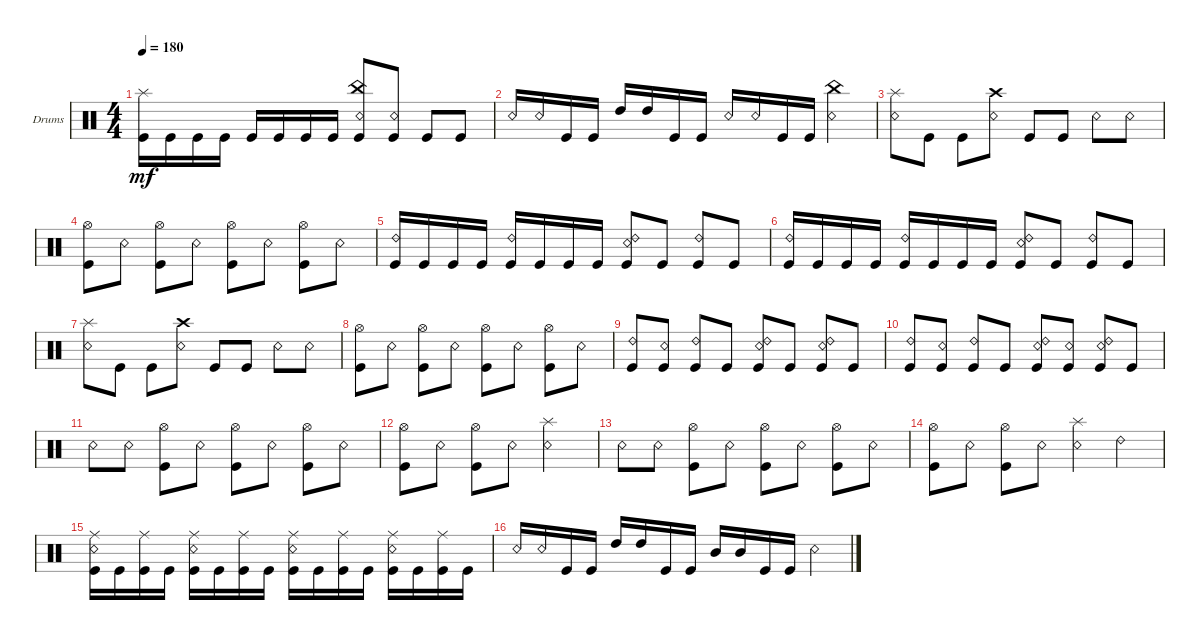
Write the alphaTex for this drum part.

\defaultSystemsLayout 4
\bracketExtendMode groupsimilarinstruments
\firstSystemTrackNameOrientation horizontal
\otherSystemsTrackNameOrientation horizontal
\track ("Drumkit" "Drums") {instrument percussion}
\staff {score}
\articulation defaults
\ts (4 4)
\tempo 180
\clef neutral
\scale
0.333333
\ks c
("Kick (hit)" "Splash (hit)").16{dy mf} "Kick (hit)".16 "Kick (hit)".16 "Kick (hit)".16 "Kick (hit)".16 "Kick (hit)".16 "Kick (hit)".16 "Kick (hit)".16 ("Kick (hit)" "China (hit)" "Snare (rim shot)").8 ("Kick (hit)" "Snare (rim shot)").8 "Kick (hit)".8 "Kick (hit)".8 |
\scale
0.333333 "Snare (rim shot)".16 "Snare (rim shot)".16 "Kick (hit)".16 "Kick (hit)".16 "High Tom (hit)".16 "High Tom (hit)".16 "Kick (hit)".16 "Kick (hit)".16 "Snare (rim shot)".16 "Snare (rim shot)".16 "Kick (hit)".16 "Kick (hit)".16 ("Snare (rim shot)" "China (hit)").4 |
\scale
0.333333 ("Snare (rim shot)" "Splash (hit)").8 "Kick (hit)".8 "Kick (hit)".8 ("Snare (rim shot)" "Crash high (hit)").8 "Kick (hit)".8 "Kick (hit)".8 "Snare (rim shot)".8 "Snare (rim shot)".8 |
\scale
0.333333 ("Kick (hit)" "Hi-Hat (open)").8 "Snare (rim shot)".8 ("Kick (hit)" "Hi-Hat (open)").8 "Snare (rim shot)".8 ("Kick (hit)" "Hi-Hat (open)").8 "Snare (rim shot)".8 ("Kick (hit)" "Hi-Hat (open)").8 "Snare (rim shot)".8 |
\scale
0.333333 ("Kick (hit)" "Ride (bell) 2").16 "Kick (hit)".16 "Kick (hit)".16 "Kick (hit)".16 ("Kick (hit)" "Ride (bell) 2").16 "Kick (hit)".16 "Kick (hit)".16 "Kick (hit)".16 ("Kick (hit)" "Ride (bell) 2" "Snare (rim shot)").8 "Kick (hit)".8 ("Kick (hit)" "Ride (bell) 2").8 "Kick (hit)".8 |
\scale
0.333333 ("Kick (hit)" "Ride (bell) 2").16 "Kick (hit)".16 "Kick (hit)".16 "Kick (hit)".16 ("Kick (hit)" "Ride (bell) 2").16 "Kick (hit)".16 "Kick (hit)".16 "Kick (hit)".16 ("Kick (hit)" "Ride (bell) 2" "Snare (rim shot)").8 "Kick (hit)".8 ("Kick (hit)" "Ride (bell) 2").8 "Kick (hit)".8 |
\scale
0.333333 ("Snare (rim shot)" "Splash (hit)").8 "Kick (hit)".8 "Kick (hit)".8 ("Snare (rim shot)" "Crash high (hit)").8 "Kick (hit)".8 "Kick (hit)".8 "Snare (rim shot)".8 "Snare (rim shot)".8 |
\scale
0.333333 ("Kick (hit)" "Hi-Hat (open)").8 "Snare (rim shot)".8 ("Kick (hit)" "Hi-Hat (open)").8 "Snare (rim shot)".8 ("Kick (hit)" "Hi-Hat (open)").8 "Snare (rim shot)".8 ("Kick (hit)" "Hi-Hat (open)").8 "Snare (rim shot)".8 |
\scale
0.333333 ("Kick (hit)" "Ride (bell) 2").8 ("Kick (hit)" "Snare (rim shot)").8 ("Kick (hit)" "Ride (bell) 2").8 "Kick (hit)".8 ("Kick (hit)" "Snare (rim shot)" "Ride (bell) 2").8 "Kick (hit)".8 ("Kick (hit)" "Ride (bell) 2" "Snare (rim shot)").8 "Kick (hit)".8 |
\scale
0.333333 ("Kick (hit)" "Ride (bell) 2").8 ("Kick (hit)" "Snare (rim shot)").8 ("Kick (hit)" "Ride (bell) 2").8 "Kick (hit)".8 ("Kick (hit)" "Snare (rim shot)" "Ride (bell) 2").8 ("Kick (hit)" "Snare (rim shot)").8 ("Kick (hit)" "Ride (bell) 2" "Snare (rim shot)").8 "Kick (hit)".8 |
\scale
0.333333 "Snare (rim shot)".8 "Snare (rim shot)".8 ("Kick (hit)" "Hi-Hat (open)").8 "Snare (rim shot)".8 ("Kick (hit)" "Hi-Hat (open)").8 "Snare (rim shot)".8 ("Kick (hit)" "Hi-Hat (open)").8 "Snare (rim shot)".8 |
\scale
0.333333 ("Kick (hit)" "Hi-Hat (open)").8 "Snare (rim shot)".8 ("Kick (hit)" "Hi-Hat (open)").8 "Snare (rim shot)".8 ("Snare (rim shot)" "Splash (hit)").2 |
\scale
0.333333 "Snare (rim shot)".8 "Snare (rim shot)".8 ("Kick (hit)" "Hi-Hat (open)").8 "Snare (rim shot)".8 ("Kick (hit)" "Hi-Hat (open)").8 "Snare (rim shot)".8 ("Kick (hit)" "Hi-Hat (open)").8 "Snare (rim shot)".8 |
\scale
0.333333 ("Kick (hit)" "Hi-Hat (open)").8 "Snare (rim shot)".8 ("Kick (hit)" "Hi-Hat (open)").8 "Snare (rim shot)".8 ("Snare (rim shot)" "Splash (hit)").4 "Ride (bell) 2".4 |
\scale
0.333333 ("Kick (hit)" "Ride (middle)" "Snare (rim shot)").16 "Kick (hit)".16 ("Kick (hit)" "Ride (middle)").16 "Kick (hit)".16 ("Kick (hit)" "Ride (middle)" "Snare (rim shot)").16 "Kick (hit)".16 ("Kick (hit)" "Ride (middle)").16 "Kick (hit)".16 ("Kick (hit)" "Ride (middle)" "Snare (rim shot)").16 "Kick (hit)".16 ("Kick (hit)" "Ride (middle)").16 "Kick (hit)".16 ("Kick (hit)" "Ride (middle)" "Snare (rim shot)").16 "Kick (hit)".16 ("Kick (hit)" "Ride (middle)").16 "Kick (hit)".16 |
\scale
0.333333 "Snare (rim shot)".16 "Snare (rim shot)".16 "Kick (hit)".16 "Kick (hit)".16 "High Tom (hit)".16 "High Tom (hit)".16 "Kick (hit)".16 "Kick (hit)".16 "Mid Tom (hit)".16 "Mid Tom (hit)".16 "Kick (hit)".16 "Kick (hit)".16 "Snare (rim shot)".4
